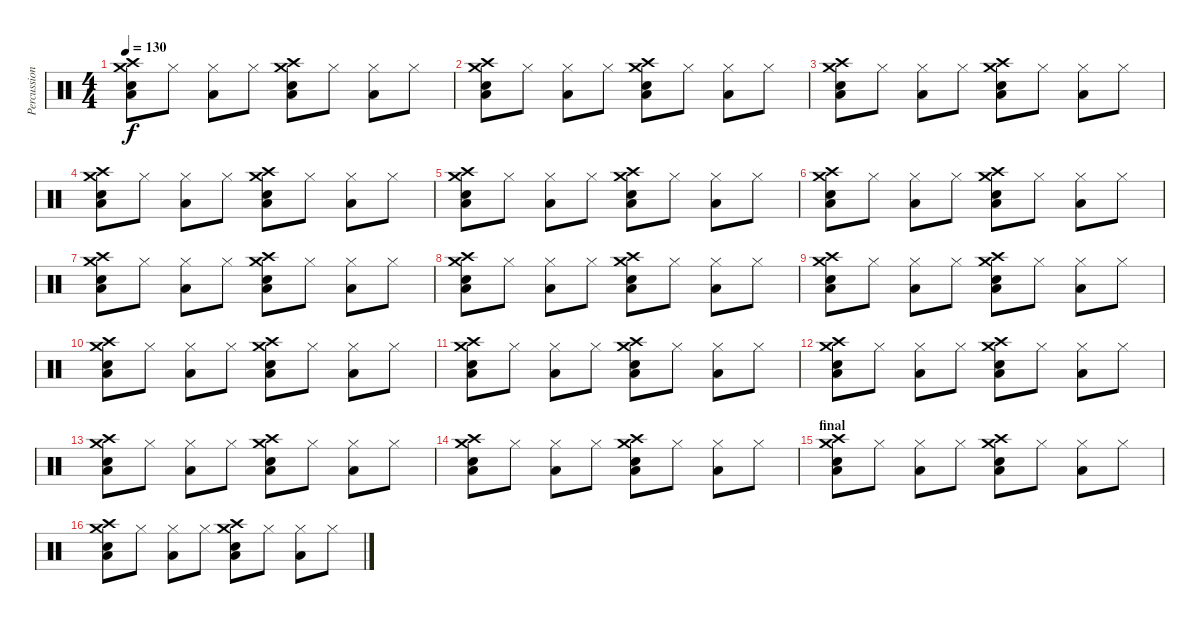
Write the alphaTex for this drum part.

\track ("Percussions" "Percussion") {instrument percussion}
\staff {score}
\articulation defaults
\ts (4 4)
\tempo 130
\clef neutral
\ks c
("Low Floor Tom (hit)" "Snare (hit) 2" "Crash high (hit)" "Crash medium (hit)").8{dy f} "Hi-Hat (closed)".8 ("Low Floor Tom (hit)" "Hi-Hat (closed)").8 "Hi-Hat (closed)".8 ("Low Floor Tom (hit)" "Snare (hit) 2" "Crash high (hit)" "Crash medium (hit)").8 "Hi-Hat (closed)".8 ("Low Floor Tom (hit)" "Hi-Hat (closed)").8 "Hi-Hat (closed)".8 |
("Low Floor Tom (hit)" "Snare (hit) 2" "Crash high (hit)" "Crash medium (hit)").8 "Hi-Hat (closed)".8 ("Low Floor Tom (hit)" "Hi-Hat (closed)").8 "Hi-Hat (closed)".8 ("Low Floor Tom (hit)" "Snare (hit) 2" "Crash high (hit)" "Crash medium (hit)").8 "Hi-Hat (closed)".8 ("Low Floor Tom (hit)" "Hi-Hat (closed)").8 "Hi-Hat (closed)".8 |
("Low Floor Tom (hit)" "Snare (hit) 2" "Crash high (hit)" "Crash medium (hit)").8 "Hi-Hat (closed)".8 ("Low Floor Tom (hit)" "Hi-Hat (closed)").8 "Hi-Hat (closed)".8 ("Low Floor Tom (hit)" "Snare (hit) 2" "Crash high (hit)" "Crash medium (hit)").8 "Hi-Hat (closed)".8 ("Low Floor Tom (hit)" "Hi-Hat (closed)").8 "Hi-Hat (closed)".8 |
("Low Floor Tom (hit)" "Snare (hit) 2" "Crash high (hit)" "Crash medium (hit)").8 "Hi-Hat (closed)".8 ("Low Floor Tom (hit)" "Hi-Hat (closed)").8 "Hi-Hat (closed)".8 ("Low Floor Tom (hit)" "Snare (hit) 2" "Crash high (hit)" "Crash medium (hit)").8 "Hi-Hat (closed)".8 ("Low Floor Tom (hit)" "Hi-Hat (closed)").8 "Hi-Hat (closed)".8 |
("Low Floor Tom (hit)" "Snare (hit) 2" "Crash high (hit)" "Crash medium (hit)").8 "Hi-Hat (closed)".8 ("Low Floor Tom (hit)" "Hi-Hat (closed)").8 "Hi-Hat (closed)".8 ("Low Floor Tom (hit)" "Snare (hit) 2" "Crash high (hit)" "Crash medium (hit)").8 "Hi-Hat (closed)".8 ("Low Floor Tom (hit)" "Hi-Hat (closed)").8 "Hi-Hat (closed)".8 |
("Low Floor Tom (hit)" "Snare (hit) 2" "Crash high (hit)" "Crash medium (hit)").8 "Hi-Hat (closed)".8 ("Low Floor Tom (hit)" "Hi-Hat (closed)").8 "Hi-Hat (closed)".8 ("Low Floor Tom (hit)" "Snare (hit) 2" "Crash high (hit)" "Crash medium (hit)").8 "Hi-Hat (closed)".8 ("Low Floor Tom (hit)" "Hi-Hat (closed)").8 "Hi-Hat (closed)".8 |
("Low Floor Tom (hit)" "Snare (hit) 2" "Crash high (hit)" "Crash medium (hit)").8 "Hi-Hat (closed)".8 ("Low Floor Tom (hit)" "Hi-Hat (closed)").8 "Hi-Hat (closed)".8 ("Low Floor Tom (hit)" "Snare (hit) 2" "Crash high (hit)" "Crash medium (hit)").8 "Hi-Hat (closed)".8 ("Low Floor Tom (hit)" "Hi-Hat (closed)").8 "Hi-Hat (closed)".8 |
("Low Floor Tom (hit)" "Snare (hit) 2" "Crash high (hit)" "Crash medium (hit)").8 "Hi-Hat (closed)".8 ("Low Floor Tom (hit)" "Hi-Hat (closed)").8 "Hi-Hat (closed)".8 ("Low Floor Tom (hit)" "Snare (hit) 2" "Crash high (hit)" "Crash medium (hit)").8 "Hi-Hat (closed)".8 ("Low Floor Tom (hit)" "Hi-Hat (closed)").8 "Hi-Hat (closed)".8 |
("Low Floor Tom (hit)" "Snare (hit) 2" "Crash high (hit)" "Crash medium (hit)").8 "Hi-Hat (closed)".8 ("Low Floor Tom (hit)" "Hi-Hat (closed)").8 "Hi-Hat (closed)".8 ("Low Floor Tom (hit)" "Snare (hit) 2" "Crash high (hit)" "Crash medium (hit)").8 "Hi-Hat (closed)".8 ("Low Floor Tom (hit)" "Hi-Hat (closed)").8 "Hi-Hat (closed)".8 |
("Low Floor Tom (hit)" "Snare (hit) 2" "Crash high (hit)" "Crash medium (hit)").8 "Hi-Hat (closed)".8 ("Low Floor Tom (hit)" "Hi-Hat (closed)").8 "Hi-Hat (closed)".8 ("Low Floor Tom (hit)" "Snare (hit) 2" "Crash high (hit)" "Crash medium (hit)").8 "Hi-Hat (closed)".8 ("Low Floor Tom (hit)" "Hi-Hat (closed)").8 "Hi-Hat (closed)".8 |
("Low Floor Tom (hit)" "Snare (hit) 2" "Crash high (hit)" "Crash medium (hit)").8 "Hi-Hat (closed)".8 ("Low Floor Tom (hit)" "Hi-Hat (closed)").8 "Hi-Hat (closed)".8 ("Low Floor Tom (hit)" "Snare (hit) 2" "Crash high (hit)" "Crash medium (hit)").8 "Hi-Hat (closed)".8 ("Low Floor Tom (hit)" "Hi-Hat (closed)").8 "Hi-Hat (closed)".8 |
("Low Floor Tom (hit)" "Snare (hit) 2" "Crash high (hit)" "Crash medium (hit)").8 "Hi-Hat (closed)".8 ("Low Floor Tom (hit)" "Hi-Hat (closed)").8 "Hi-Hat (closed)".8 ("Low Floor Tom (hit)" "Snare (hit) 2" "Crash high (hit)" "Crash medium (hit)").8 "Hi-Hat (closed)".8 ("Low Floor Tom (hit)" "Hi-Hat (closed)").8 "Hi-Hat (closed)".8 |
("Low Floor Tom (hit)" "Snare (hit) 2" "Crash high (hit)" "Crash medium (hit)").8 "Hi-Hat (closed)".8 ("Low Floor Tom (hit)" "Hi-Hat (closed)").8 "Hi-Hat (closed)".8 ("Low Floor Tom (hit)" "Snare (hit) 2" "Crash high (hit)" "Crash medium (hit)").8 "Hi-Hat (closed)".8 ("Low Floor Tom (hit)" "Hi-Hat (closed)").8 "Hi-Hat (closed)".8 |
("Low Floor Tom (hit)" "Snare (hit) 2" "Crash high (hit)" "Crash medium (hit)").8 "Hi-Hat (closed)".8 ("Low Floor Tom (hit)" "Hi-Hat (closed)").8 "Hi-Hat (closed)".8 ("Low Floor Tom (hit)" "Snare (hit) 2" "Crash high (hit)" "Crash medium (hit)").8 "Hi-Hat (closed)".8 ("Low Floor Tom (hit)" "Hi-Hat (closed)").8 "Hi-Hat (closed)".8 |
\section ("" "final")
("Low Floor Tom (hit)" "Snare (hit) 2" "Crash high (hit)" "Crash medium (hit)").8 "Hi-Hat (closed)".8 ("Low Floor Tom (hit)" "Hi-Hat (closed)").8 "Hi-Hat (closed)".8 ("Low Floor Tom (hit)" "Snare (hit) 2" "Crash high (hit)" "Crash medium (hit)").8 "Hi-Hat (closed)".8 ("Low Floor Tom (hit)" "Hi-Hat (closed)").8 "Hi-Hat (closed)".8 |
("Low Floor Tom (hit)" "Snare (hit) 2" "Crash high (hit)" "Crash medium (hit)").8 "Hi-Hat (closed)".8 ("Low Floor Tom (hit)" "Hi-Hat (closed)").8 "Hi-Hat (closed)".8 ("Low Floor Tom (hit)" "Snare (hit) 2" "Crash high (hit)" "Crash medium (hit)").8 "Hi-Hat (closed)".8 ("Low Floor Tom (hit)" "Hi-Hat (closed)").8 "Hi-Hat (closed)".8
